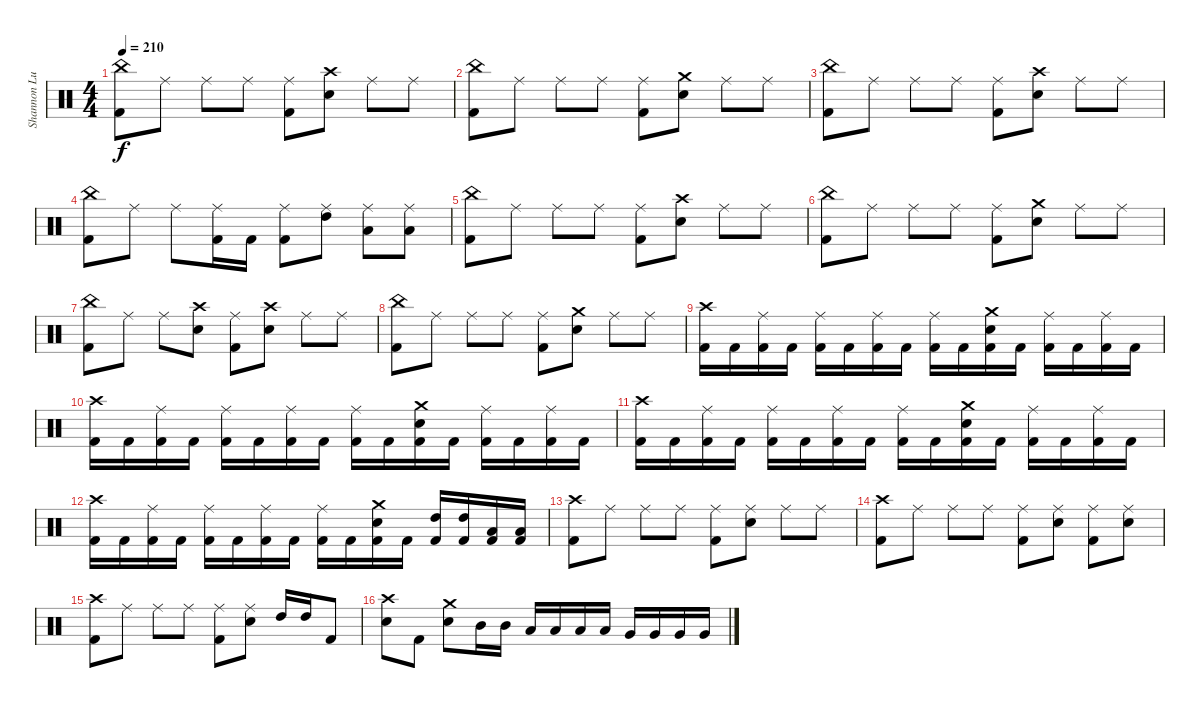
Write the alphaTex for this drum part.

\track ("Shannon Lucas" "Shannon Lu") {instrument percussion}
\staff {score}
\articulation defaults
\ts (4 4)
\tempo 210
\clef neutral
\ks c
("China (hit)" "Kick (hit) 2").8{dy f} "Ride (middle)".8 "Ride (middle)".8 "Ride (middle)".8 ("Ride (middle)" "Kick (hit) 2").8 ("Crash high (hit)" "Electric Snare (hit)").8 "Ride (middle)".8 "Ride (middle)".8 |
("China (hit)" "Kick (hit) 2").8 "Ride (middle)".8 "Ride (middle)".8 "Ride (middle)".8 ("Ride (middle)" "Kick (hit) 2").8 ("Crash medium (hit)" "Electric Snare (hit)").8 "Ride (middle)".8 "Ride (middle)".8 |
("China (hit)" "Kick (hit) 2").8 "Ride (middle)".8 "Ride (middle)".8 "Ride (middle)".8 ("Ride (middle)" "Kick (hit) 2").8 ("Crash high (hit)" "Electric Snare (hit)").8 "Ride (middle)".8 "Ride (middle)".8 |
("China (hit)" "Kick (hit) 2").8 "Ride (middle)".8 "Ride (middle)".8 ("Ride (middle)" "Kick (hit) 2").16 "Kick (hit) 2".16 ("Ride (middle)" "Kick (hit) 2").8 ("Ride (middle)" "High Tom (hit)").8 ("Ride (middle)" "Low Tom (hit)").8 ("Ride (middle)" "Low Tom (hit)").8 |
("China (hit)" "Kick (hit) 2").8 "Ride (middle)".8 "Ride (middle)".8 "Ride (middle)".8 ("Ride (middle)" "Kick (hit) 2").8 ("Crash high (hit)" "Electric Snare (hit)").8 "Ride (middle)".8 "Ride (middle)".8 |
("China (hit)" "Kick (hit) 2").8 "Ride (middle)".8 "Ride (middle)".8 "Ride (middle)".8 ("Ride (middle)" "Kick (hit) 2").8 ("Crash medium (hit)" "Electric Snare (hit)").8 "Ride (middle)".8 "Ride (middle)".8 |
("China (hit)" "Kick (hit) 2").8 "Ride (middle)".8 "Ride (middle)".8 ("Crash high (hit)" "Electric Snare (hit)").8 ("Ride (middle)" "Kick (hit) 2").8 ("Crash high (hit)" "Electric Snare (hit)").8 "Ride (middle)".8 "Ride (middle)".8 |
("China (hit)" "Kick (hit) 2").8 "Ride (middle)".8 "Ride (middle)".8 "Ride (middle)".8 ("Ride (middle)" "Kick (hit) 2").8 ("Crash medium (hit)" "Electric Snare (hit)").8 "Ride (middle)".8 "Ride (middle)".8 |
("Crash high (hit)" "Kick (hit) 2").16 "Kick (hit) 2".16 ("Ride (middle)" "Kick (hit) 2").16 "Kick (hit) 2".16 ("Ride (middle)" "Kick (hit) 2").16 "Kick (hit) 2".16 ("Ride (middle)" "Kick (hit) 2").16 "Kick (hit) 2".16 ("Ride (middle)" "Kick (hit) 2").16 "Kick (hit) 2".16 ("Crash medium (hit)" "Electric Snare (hit)" "Kick (hit) 2").16 "Kick (hit) 2".16 ("Ride (middle)" "Kick (hit) 2").16 "Kick (hit) 2".16 ("Ride (middle)" "Kick (hit) 2").16 "Kick (hit) 2".16 |
("Crash high (hit)" "Kick (hit) 2").16 "Kick (hit) 2".16 ("Ride (middle)" "Kick (hit) 2").16 "Kick (hit) 2".16 ("Ride (middle)" "Kick (hit) 2").16 "Kick (hit) 2".16 ("Ride (middle)" "Kick (hit) 2").16 "Kick (hit) 2".16 ("Ride (middle)" "Kick (hit) 2").16 "Kick (hit) 2".16 ("Crash medium (hit)" "Electric Snare (hit)" "Kick (hit) 2").16 "Kick (hit) 2".16 ("Ride (middle)" "Kick (hit) 2").16 "Kick (hit) 2".16 ("Ride (middle)" "Kick (hit) 2").16 "Kick (hit) 2".16 |
("Crash high (hit)" "Kick (hit) 2").16 "Kick (hit) 2".16 ("Ride (middle)" "Kick (hit) 2").16 "Kick (hit) 2".16 ("Ride (middle)" "Kick (hit) 2").16 "Kick (hit) 2".16 ("Ride (middle)" "Kick (hit) 2").16 "Kick (hit) 2".16 ("Ride (middle)" "Kick (hit) 2").16 "Kick (hit) 2".16 ("Crash medium (hit)" "Electric Snare (hit)" "Kick (hit) 2").16 "Kick (hit) 2".16 ("Ride (middle)" "Kick (hit) 2").16 "Kick (hit) 2".16 ("Ride (middle)" "Kick (hit) 2").16 "Kick (hit) 2".16 |
("Crash high (hit)" "Kick (hit) 2").16 "Kick (hit) 2".16 ("Ride (middle)" "Kick (hit) 2").16 "Kick (hit) 2".16 ("Ride (middle)" "Kick (hit) 2").16 "Kick (hit) 2".16 ("Ride (middle)" "Kick (hit) 2").16 "Kick (hit) 2".16 ("Ride (middle)" "Kick (hit) 2").16 "Kick (hit) 2".16 ("Crash medium (hit)" "Electric Snare (hit)" "Kick (hit) 2").16 "Kick (hit) 2".16 ("High Tom (hit)" "Kick (hit) 2").16 ("High Tom (hit)" "Kick (hit) 2").16 ("Low Tom (hit)" "Kick (hit) 2").16 ("Low Tom (hit)" "Kick (hit) 2").16 |
("Crash high (hit)" "Kick (hit) 2").8 "Ride (middle)".8 "Ride (middle)".8 "Ride (middle)".8 ("Ride (middle)" "Kick (hit) 2").8 ("Ride (middle)" "Electric Snare (hit)").8 "Ride (middle)".8 "Ride (middle)".8 |
("Crash high (hit)" "Kick (hit) 2").8 "Ride (middle)".8 "Ride (middle)".8 "Ride (middle)".8 ("Ride (middle)" "Kick (hit) 2").8 ("Ride (middle)" "Electric Snare (hit)").8 ("Ride (middle)" "Kick (hit) 2").8 ("Ride (middle)" "Electric Snare (hit)").8 |
("Crash high (hit)" "Kick (hit) 2").8 "Ride (middle)".8 "Ride (middle)".8 "Ride (middle)".8 ("Ride (middle)" "Kick (hit) 2").8 ("Ride (middle)" "Electric Snare (hit)").8 "High Tom (hit)".16 "High Tom (hit)".16 "Kick (hit) 2".8 |
("Crash high (hit)" "Electric Snare (hit)").8 "Kick (hit) 2".8 ("Crash medium (hit)" "Electric Snare (hit)").8 "Mid Tom (hit)".16 "Mid Tom (hit)".16 "Low Tom (hit)".16 "Low Tom (hit)".16 "Low Tom (hit)".16 "Low Tom (hit)".16 "Very Low Tom (hit)".16 "Very Low Tom (hit)".16 "Very Low Tom (hit)".16 "Very Low Tom (hit)".16
